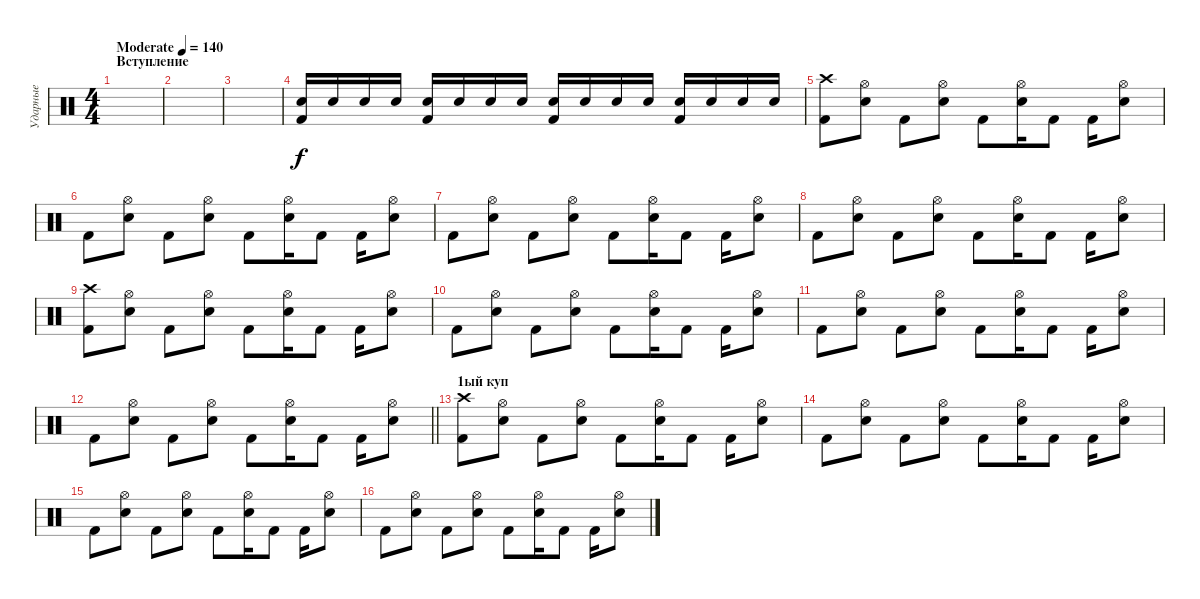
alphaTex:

\track ("Ударные" "Ударные") {instrument percussion}
\staff {score}
\articulation defaults
\ts (4 4)
\section ("" "Вступление ")
\tempo (140 "Moderate")
\clef neutral
\ks c
|
|
|
("Electric Snare (hit)" "Kick (hit) 2").16 "Electric Snare (hit)".16 "Electric Snare (hit)".16 "Electric Snare (hit)".16 ("Electric Snare (hit)" "Kick (hit) 2").16 "Electric Snare (hit)".16 "Electric Snare (hit)".16 "Electric Snare (hit)".16 ("Electric Snare (hit)" "Kick (hit) 2").16 "Electric Snare (hit)".16 "Electric Snare (hit)".16 "Electric Snare (hit)".16 ("Electric Snare (hit)" "Kick (hit) 2").16 "Electric Snare (hit)".16 "Electric Snare (hit)".16 "Electric Snare (hit)".16 |
("Crash high (hit)" "Kick (hit) 2").8 ("Hi-Hat (open)" "Electric Snare (hit)").8 "Kick (hit) 2".8 ("Hi-Hat (open)" "Electric Snare (hit)").8 "Kick (hit) 2".8 ("Hi-Hat (open)" "Electric Snare (hit)").16 "Kick (hit) 2".8 "Kick (hit) 2".16 ("Hi-Hat (open)" "Electric Snare (hit)").8 |
"Kick (hit) 2".8 ("Hi-Hat (open)" "Electric Snare (hit)").8 "Kick (hit) 2".8 ("Hi-Hat (open)" "Electric Snare (hit)").8 "Kick (hit) 2".8 ("Hi-Hat (open)" "Electric Snare (hit)").16 "Kick (hit) 2".8 "Kick (hit) 2".16 ("Hi-Hat (open)" "Electric Snare (hit)").8 |
"Kick (hit) 2".8 ("Hi-Hat (open)" "Electric Snare (hit)").8 "Kick (hit) 2".8 ("Hi-Hat (open)" "Electric Snare (hit)").8 "Kick (hit) 2".8 ("Hi-Hat (open)" "Electric Snare (hit)").16 "Kick (hit) 2".8 "Kick (hit) 2".16 ("Hi-Hat (open)" "Electric Snare (hit)").8 |
"Kick (hit) 2".8 ("Hi-Hat (open)" "Electric Snare (hit)").8 "Kick (hit) 2".8 ("Hi-Hat (open)" "Electric Snare (hit)").8 "Kick (hit) 2".8 ("Hi-Hat (open)" "Electric Snare (hit)").16 "Kick (hit) 2".8 "Kick (hit) 2".16 ("Hi-Hat (open)" "Electric Snare (hit)").8 |
("Crash high (hit)" "Kick (hit) 2").8 ("Hi-Hat (open)" "Electric Snare (hit)").8 "Kick (hit) 2".8 ("Hi-Hat (open)" "Electric Snare (hit)").8 "Kick (hit) 2".8 ("Hi-Hat (open)" "Electric Snare (hit)").16 "Kick (hit) 2".8 "Kick (hit) 2".16 ("Hi-Hat (open)" "Electric Snare (hit)").8 |
"Kick (hit) 2".8 ("Hi-Hat (open)" "Electric Snare (hit)").8 "Kick (hit) 2".8 ("Hi-Hat (open)" "Electric Snare (hit)").8 "Kick (hit) 2".8 ("Hi-Hat (open)" "Electric Snare (hit)").16 "Kick (hit) 2".8 "Kick (hit) 2".16 ("Hi-Hat (open)" "Electric Snare (hit)").8 |
"Kick (hit) 2".8 ("Hi-Hat (open)" "Electric Snare (hit)").8 "Kick (hit) 2".8 ("Hi-Hat (open)" "Electric Snare (hit)").8 "Kick (hit) 2".8 ("Hi-Hat (open)" "Electric Snare (hit)").16 "Kick (hit) 2".8 "Kick (hit) 2".16 ("Hi-Hat (open)" "Electric Snare (hit)").8 |
\barLineRight lightlight "Kick (hit) 2".8
("Hi-Hat (open)" "Electric Snare (hit)").8 "Kick (hit) 2".8 ("Hi-Hat (open)" "Electric Snare (hit)").8 "Kick (hit) 2".8 ("Hi-Hat (open)" "Electric Snare (hit)").16 "Kick (hit) 2".8 "Kick (hit) 2".16 ("Hi-Hat (open)" "Electric Snare (hit)").8 |
\section ("" "1ый куп")
("Crash high (hit)" "Kick (hit) 2").8 ("Hi-Hat (open)" "Electric Snare (hit)").8 "Kick (hit) 2".8 ("Hi-Hat (open)" "Electric Snare (hit)").8 "Kick (hit) 2".8 ("Hi-Hat (open)" "Electric Snare (hit)").16 "Kick (hit) 2".8 "Kick (hit) 2".16 ("Hi-Hat (open)" "Electric Snare (hit)").8 |
"Kick (hit) 2".8 ("Hi-Hat (open)" "Electric Snare (hit)").8 "Kick (hit) 2".8 ("Hi-Hat (open)" "Electric Snare (hit)").8 "Kick (hit) 2".8 ("Hi-Hat (open)" "Electric Snare (hit)").16 "Kick (hit) 2".8 "Kick (hit) 2".16 ("Hi-Hat (open)" "Electric Snare (hit)").8 |
"Kick (hit) 2".8 ("Hi-Hat (open)" "Electric Snare (hit)").8 "Kick (hit) 2".8 ("Hi-Hat (open)" "Electric Snare (hit)").8 "Kick (hit) 2".8 ("Hi-Hat (open)" "Electric Snare (hit)").16 "Kick (hit) 2".8 "Kick (hit) 2".16 ("Hi-Hat (open)" "Electric Snare (hit)").8 |
"Kick (hit) 2".8 ("Hi-Hat (open)" "Electric Snare (hit)").8 "Kick (hit) 2".8 ("Hi-Hat (open)" "Electric Snare (hit)").8 "Kick (hit) 2".8 ("Hi-Hat (open)" "Electric Snare (hit)").16 "Kick (hit) 2".8 "Kick (hit) 2".16 ("Hi-Hat (open)" "Electric Snare (hit)").8
